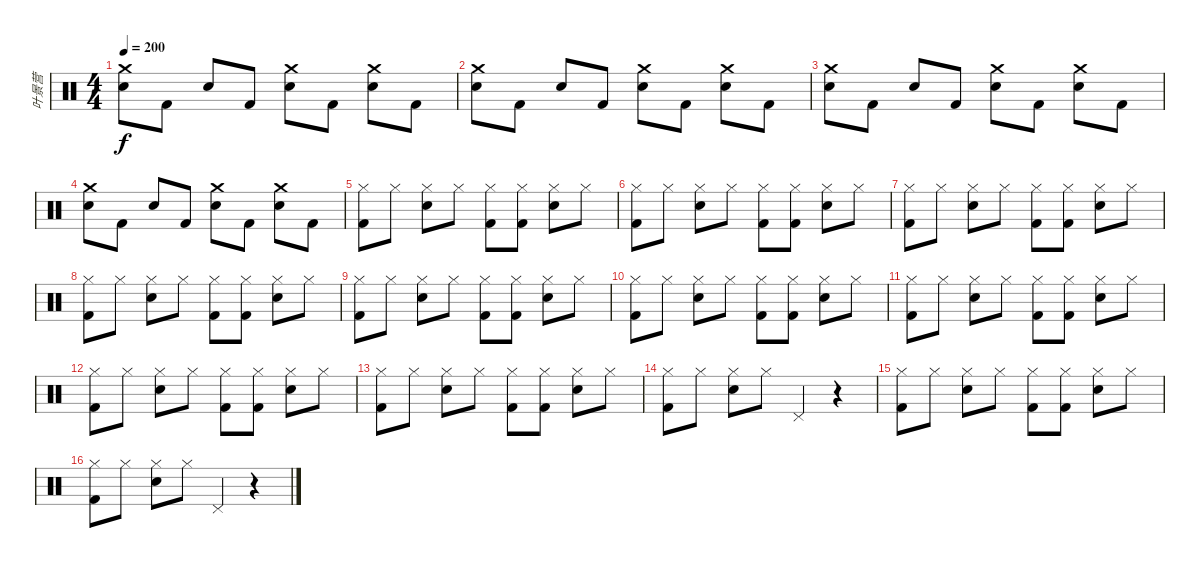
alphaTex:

\track ("叶景营" "叶景营") {instrument percussion}
\staff {score}
\articulation defaults
\ts (4 4)
\tempo 200
\clef neutral
\ks c
("Crash medium (hit)" "Electric Snare (hit)").8{dy f} "Kick (hit) 2".8 "Electric Snare (hit)".8 "Kick (hit) 2".8 ("Crash medium (hit)" "Electric Snare (hit)").8 "Kick (hit) 2".8 ("Crash medium (hit)" "Electric Snare (hit)").8 "Kick (hit) 2".8 |
("Crash medium (hit)" "Electric Snare (hit)").8 "Kick (hit) 2".8 "Electric Snare (hit)".8 "Kick (hit) 2".8 ("Crash medium (hit)" "Electric Snare (hit)").8 "Kick (hit) 2".8 ("Crash medium (hit)" "Electric Snare (hit)").8 "Kick (hit) 2".8 |
("Crash medium (hit)" "Electric Snare (hit)").8 "Kick (hit) 2".8 "Electric Snare (hit)".8 "Kick (hit) 2".8 ("Crash medium (hit)" "Electric Snare (hit)").8 "Kick (hit) 2".8 ("Crash medium (hit)" "Electric Snare (hit)").8 "Kick (hit) 2".8 |
("Crash medium (hit)" "Electric Snare (hit)").8 "Kick (hit) 2".8 "Electric Snare (hit)".8 "Kick (hit) 2".8 ("Crash medium (hit)" "Electric Snare (hit)").8 "Kick (hit) 2".8 ("Crash medium (hit)" "Electric Snare (hit)").8 "Kick (hit) 2".8 |
("Hi-Hat (closed)" "Kick (hit) 2").8 "Hi-Hat (closed)".8 ("Hi-Hat (closed)" "Electric Snare (hit)").8 "Hi-Hat (closed)".8 ("Hi-Hat (closed)" "Kick (hit) 2").8 ("Hi-Hat (closed)" "Kick (hit) 2").8 ("Hi-Hat (closed)" "Electric Snare (hit)").8 "Hi-Hat (closed)".8 |
("Hi-Hat (closed)" "Kick (hit) 2").8 "Hi-Hat (closed)".8 ("Hi-Hat (closed)" "Electric Snare (hit)").8 "Hi-Hat (closed)".8 ("Hi-Hat (closed)" "Kick (hit) 2").8 ("Hi-Hat (closed)" "Kick (hit) 2").8 ("Hi-Hat (closed)" "Electric Snare (hit)").8 "Hi-Hat (closed)".8 |
("Hi-Hat (closed)" "Kick (hit) 2").8 "Hi-Hat (closed)".8 ("Hi-Hat (closed)" "Electric Snare (hit)").8 "Hi-Hat (closed)".8 ("Hi-Hat (closed)" "Kick (hit) 2").8 ("Hi-Hat (closed)" "Kick (hit) 2").8 ("Hi-Hat (closed)" "Electric Snare (hit)").8 "Hi-Hat (closed)".8 |
("Hi-Hat (closed)" "Kick (hit) 2").8 "Hi-Hat (closed)".8 ("Hi-Hat (closed)" "Electric Snare (hit)").8 "Hi-Hat (closed)".8 ("Hi-Hat (closed)" "Kick (hit) 2").8 ("Hi-Hat (closed)" "Kick (hit) 2").8 ("Hi-Hat (closed)" "Electric Snare (hit)").8 "Hi-Hat (closed)".8 |
("Hi-Hat (closed)" "Kick (hit) 2").8 "Hi-Hat (closed)".8 ("Hi-Hat (closed)" "Electric Snare (hit)").8 "Hi-Hat (closed)".8 ("Hi-Hat (closed)" "Kick (hit) 2").8 ("Hi-Hat (closed)" "Kick (hit) 2").8 ("Hi-Hat (closed)" "Electric Snare (hit)").8 "Hi-Hat (closed)".8 |
("Hi-Hat (closed)" "Kick (hit) 2").8 "Hi-Hat (closed)".8 ("Hi-Hat (closed)" "Electric Snare (hit)").8 "Hi-Hat (closed)".8 ("Hi-Hat (closed)" "Kick (hit) 2").8 ("Hi-Hat (closed)" "Kick (hit) 2").8 ("Hi-Hat (closed)" "Electric Snare (hit)").8 "Hi-Hat (closed)".8 |
("Hi-Hat (closed)" "Kick (hit) 2").8 "Hi-Hat (closed)".8 ("Hi-Hat (closed)" "Electric Snare (hit)").8 "Hi-Hat (closed)".8 ("Hi-Hat (closed)" "Kick (hit) 2").8 ("Hi-Hat (closed)" "Kick (hit) 2").8 ("Hi-Hat (closed)" "Electric Snare (hit)").8 "Hi-Hat (closed)".8 |
("Hi-Hat (closed)" "Kick (hit) 2").8 "Hi-Hat (closed)".8 ("Hi-Hat (closed)" "Electric Snare (hit)").8 "Hi-Hat (closed)".8 ("Hi-Hat (closed)" "Kick (hit) 2").8 ("Hi-Hat (closed)" "Kick (hit) 2").8 ("Hi-Hat (closed)" "Electric Snare (hit)").8 "Hi-Hat (closed)".8 |
("Hi-Hat (closed)" "Kick (hit) 2").8 "Hi-Hat (closed)".8 ("Hi-Hat (closed)" "Electric Snare (hit)").8 "Hi-Hat (closed)".8 ("Hi-Hat (closed)" "Kick (hit) 2").8 ("Hi-Hat (closed)" "Kick (hit) 2").8 ("Hi-Hat (closed)" "Electric Snare (hit)").8 "Hi-Hat (closed)".8 |
("Hi-Hat (closed)" "Kick (hit) 2").8 "Hi-Hat (closed)".8 ("Hi-Hat (closed)" "Electric Snare (hit)").8 "Hi-Hat (closed)".8 "Pedal Hi-Hat (hit)".4 r.4 |
("Hi-Hat (closed)" "Kick (hit) 2").8 "Hi-Hat (closed)".8 ("Hi-Hat (closed)" "Electric Snare (hit)").8 "Hi-Hat (closed)".8 ("Hi-Hat (closed)" "Kick (hit) 2").8 ("Hi-Hat (closed)" "Kick (hit) 2").8 ("Hi-Hat (closed)" "Electric Snare (hit)").8 "Hi-Hat (closed)".8 |
("Hi-Hat (closed)" "Kick (hit) 2").8 "Hi-Hat (closed)".8 ("Hi-Hat (closed)" "Electric Snare (hit)").8 "Hi-Hat (closed)".8 "Pedal Hi-Hat (hit)".4 r.4
